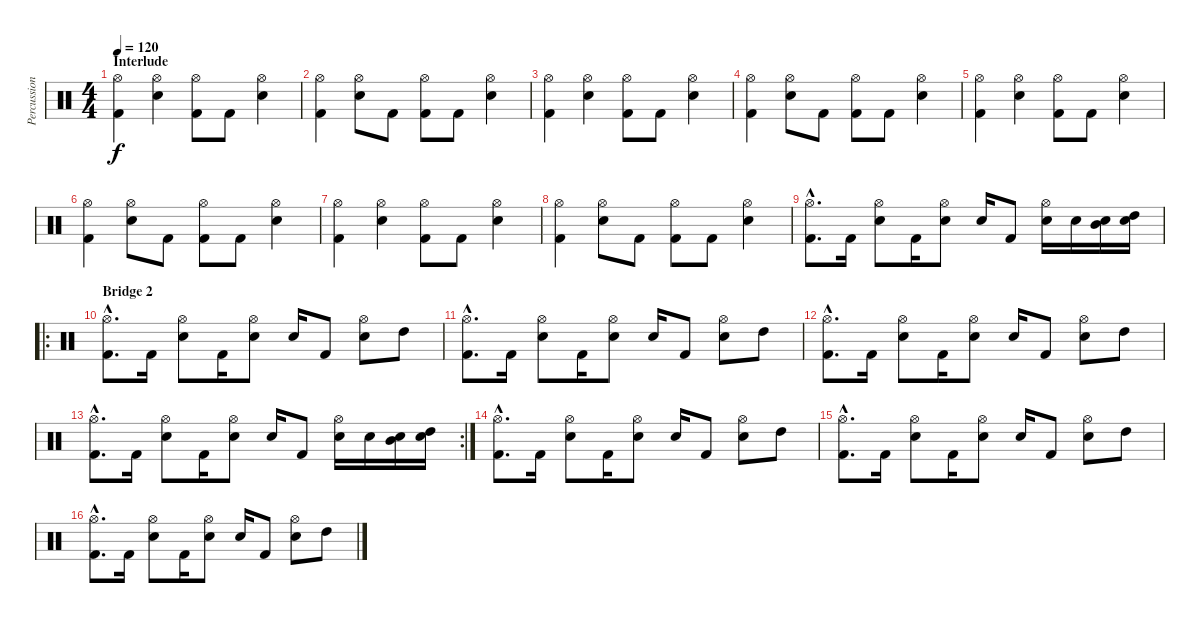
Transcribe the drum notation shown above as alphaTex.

\track ("Percussion" "Percussion") {instrument percussion}
\staff {score}
\articulation defaults
\ts (4 4)
\section ("" "Interlude")
\tempo 120
\clef neutral
\ks c
("Hi-Hat (open)" "Kick (hit) 2").4{dy f} ("Hi-Hat (open)" "Electric Snare (hit)").4 ("Hi-Hat (open)" "Kick (hit) 2").8 "Kick (hit) 2".8 ("Hi-Hat (open)" "Electric Snare (hit)").4 |
("Hi-Hat (open)" "Kick (hit) 2").4 ("Hi-Hat (open)" "Electric Snare (hit)").8 "Kick (hit) 2".8 ("Hi-Hat (open)" "Kick (hit) 2").8 "Kick (hit) 2".8 ("Hi-Hat (open)" "Electric Snare (hit)").4 |
("Hi-Hat (open)" "Kick (hit) 2").4 ("Hi-Hat (open)" "Electric Snare (hit)").4 ("Hi-Hat (open)" "Kick (hit) 2").8 "Kick (hit) 2".8 ("Hi-Hat (open)" "Electric Snare (hit)").4 |
("Hi-Hat (open)" "Kick (hit) 2").4 ("Hi-Hat (open)" "Electric Snare (hit)").8 "Kick (hit) 2".8 ("Hi-Hat (open)" "Kick (hit) 2").8 "Kick (hit) 2".8 ("Hi-Hat (open)" "Electric Snare (hit)").4 |
("Hi-Hat (open)" "Kick (hit) 2").4 ("Hi-Hat (open)" "Electric Snare (hit)").4 ("Hi-Hat (open)" "Kick (hit) 2").8 "Kick (hit) 2".8 ("Hi-Hat (open)" "Electric Snare (hit)").4 |
("Hi-Hat (open)" "Kick (hit) 2").4 ("Hi-Hat (open)" "Electric Snare (hit)").8 "Kick (hit) 2".8 ("Hi-Hat (open)" "Kick (hit) 2").8 "Kick (hit) 2".8 ("Hi-Hat (open)" "Electric Snare (hit)").4 |
("Hi-Hat (open)" "Kick (hit) 2").4 ("Hi-Hat (open)" "Electric Snare (hit)").4 ("Hi-Hat (open)" "Kick (hit) 2").8 "Kick (hit) 2".8 ("Hi-Hat (open)" "Electric Snare (hit)").4 |
("Hi-Hat (open)" "Kick (hit) 2").4 ("Hi-Hat (open)" "Electric Snare (hit)").8 "Kick (hit) 2".8 ("Hi-Hat (open)" "Kick (hit) 2").8 "Kick (hit) 2".8 ("Hi-Hat (open)" "Electric Snare (hit)").4 |
("Hi-Hat (open)"{hac} "Kick (hit) 2"{hac}).8{d} "Kick (hit) 2".16 ("Hi-Hat (open)" "Electric Snare (hit)").8 "Kick (hit) 2".16 ("Hi-Hat (open)" "Electric Snare (hit)").8 "Electric Snare (hit)".16 "Kick (hit) 2".8 ("Hi-Hat (open)" "Electric Snare (hit)").16 "Electric Snare (hit)".16 ("Electric Snare (hit)" "Mid Tom (hit)").16 ("Electric Snare (hit)" "High Tom (hit)").16 |
\ro
\section ("" "Bridge 2")
("Hi-Hat (open)"{hac} "Kick (hit) 2"{hac}).8{d} "Kick (hit) 2".16 ("Hi-Hat (open)" "Electric Snare (hit)").8 "Kick (hit) 2".16 ("Hi-Hat (open)" "Electric Snare (hit)").8 "Electric Snare (hit)".16 "Kick (hit) 2".8 ("Hi-Hat (open)" "Electric Snare (hit)").8 "High Tom (hit)".8 |
("Hi-Hat (open)"{hac} "Kick (hit) 2"{hac}).8{d} "Kick (hit) 2".16 ("Hi-Hat (open)" "Electric Snare (hit)").8 "Kick (hit) 2".16 ("Hi-Hat (open)" "Electric Snare (hit)").8 "Electric Snare (hit)".16 "Kick (hit) 2".8 ("Hi-Hat (open)" "Electric Snare (hit)").8 "High Tom (hit)".8 |
("Hi-Hat (open)"{hac} "Kick (hit) 2"{hac}).8{d} "Kick (hit) 2".16 ("Hi-Hat (open)" "Electric Snare (hit)").8 "Kick (hit) 2".16 ("Hi-Hat (open)" "Electric Snare (hit)").8 "Electric Snare (hit)".16 "Kick (hit) 2".8 ("Hi-Hat (open)" "Electric Snare (hit)").8 "High Tom (hit)".8 |
\rc 2
("Hi-Hat (open)"{hac} "Kick (hit) 2"{hac}).8{d} "Kick (hit) 2".16 ("Hi-Hat (open)" "Electric Snare (hit)").8 "Kick (hit) 2".16 ("Hi-Hat (open)" "Electric Snare (hit)").8 "Electric Snare (hit)".16 "Kick (hit) 2".8 ("Hi-Hat (open)" "Electric Snare (hit)").16 "Electric Snare (hit)".16 ("Electric Snare (hit)" "Mid Tom (hit)").16 ("Electric Snare (hit)" "High Tom (hit)").16 |
("Hi-Hat (open)"{hac} "Kick (hit) 2"{hac}).8{d} "Kick (hit) 2".16 ("Hi-Hat (open)" "Electric Snare (hit)").8 "Kick (hit) 2".16 ("Hi-Hat (open)" "Electric Snare (hit)").8 "Electric Snare (hit)".16 "Kick (hit) 2".8 ("Hi-Hat (open)" "Electric Snare (hit)").8 "High Tom (hit)".8 |
("Hi-Hat (open)"{hac} "Kick (hit) 2"{hac}).8{d} "Kick (hit) 2".16 ("Hi-Hat (open)" "Electric Snare (hit)").8 "Kick (hit) 2".16 ("Hi-Hat (open)" "Electric Snare (hit)").8 "Electric Snare (hit)".16 "Kick (hit) 2".8 ("Hi-Hat (open)" "Electric Snare (hit)").8 "High Tom (hit)".8 |
("Hi-Hat (open)"{hac} "Kick (hit) 2"{hac}).8{d} "Kick (hit) 2".16 ("Hi-Hat (open)" "Electric Snare (hit)").8 "Kick (hit) 2".16 ("Hi-Hat (open)" "Electric Snare (hit)").8 "Electric Snare (hit)".16 "Kick (hit) 2".8 ("Hi-Hat (open)" "Electric Snare (hit)").8 "High Tom (hit)".8
